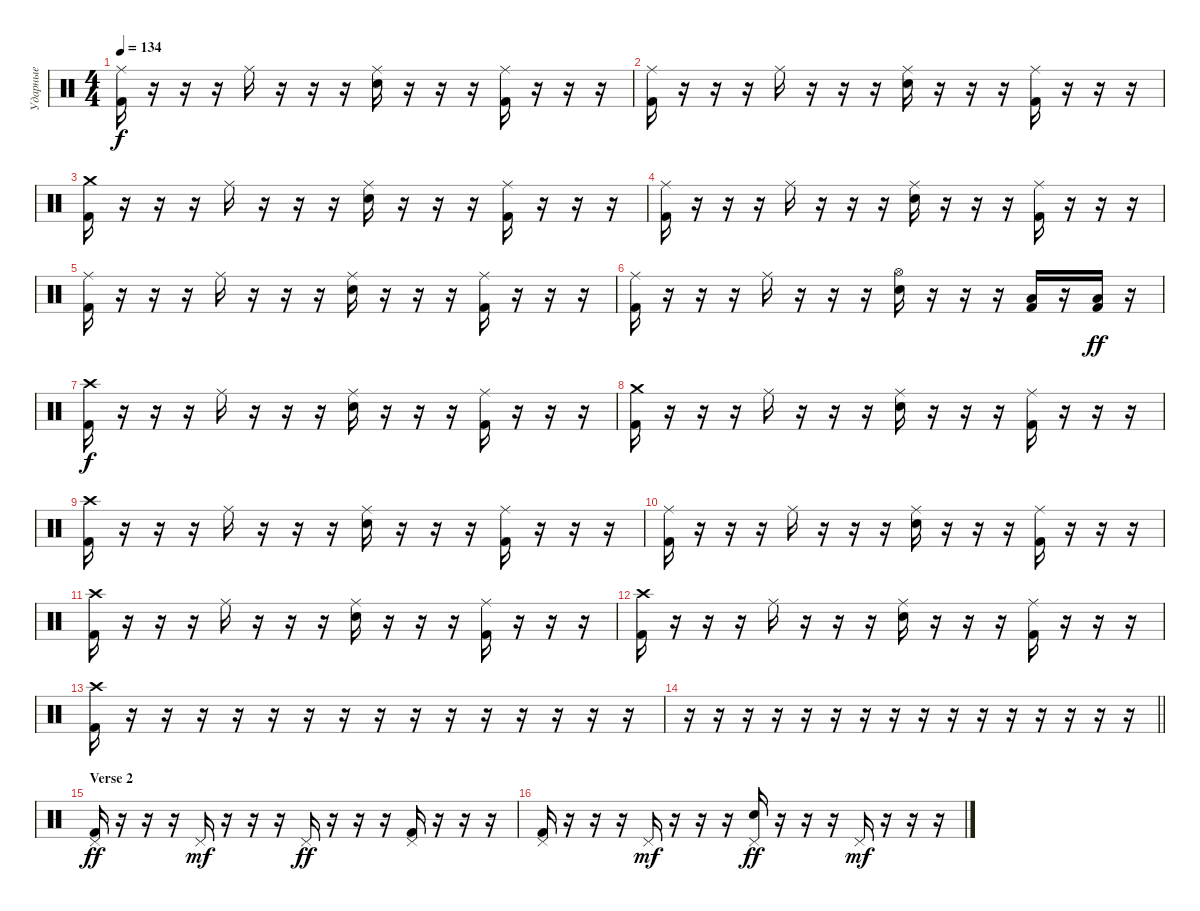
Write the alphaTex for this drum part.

\track ("Ударные" "Ударные") {instrument percussion}
\staff {score}
\articulation defaults
\ts (4 4)
\tempo 134
\clef neutral
\ks c
("Ride (middle)" "Kick (hit) 2").16{dy f} r.16 r.16 r.16 "Ride (middle)".16 r.16 r.16 r.16 ("Ride (middle)" "Snare (hit) 2").16 r.16 r.16 r.16 ("Ride (middle)" "Kick (hit) 2").16 r.16 r.16 r.16 |
("Ride (middle)" "Kick (hit) 2").16 r.16 r.16 r.16 "Ride (middle)".16 r.16 r.16 r.16 ("Ride (middle)" "Snare (hit) 2").16 r.16 r.16 r.16 ("Ride (middle)" "Kick (hit) 2").16 r.16 r.16 r.16 |
("Crash medium (hit)" "Kick (hit) 2").16 r.16 r.16 r.16 "Ride (middle)".16 r.16 r.16 r.16 ("Ride (middle)" "Snare (hit) 2").16 r.16 r.16 r.16 ("Ride (middle)" "Kick (hit) 2").16 r.16 r.16 r.16 |
("Ride (middle)" "Kick (hit) 2").16 r.16 r.16 r.16 "Ride (middle)".16 r.16 r.16 r.16 ("Ride (middle)" "Snare (hit) 2").16 r.16 r.16 r.16 ("Ride (middle)" "Kick (hit) 2").16 r.16 r.16 r.16 |
("Ride (middle)" "Kick (hit) 2").16 r.16 r.16 r.16 "Ride (middle)".16 r.16 r.16 r.16 ("Ride (middle)" "Snare (hit) 2").16 r.16 r.16 r.16 ("Ride (middle)" "Kick (hit) 2").16 r.16 r.16 r.16 |
("Ride (middle)" "Kick (hit) 2").16 r.16 r.16 r.16 "Ride (middle)".16 r.16 r.16 r.16 ("Hi-Hat (open)" "Snare (hit) 2").16 r.16 r.16 r.16 ("Low Tom (hit)" "Kick (hit) 2").16 r.16 ("Low Tom (hit)" "Kick (hit) 2").16{dy ff} r.16 |
("Crash high (hit)" "Kick (hit) 2").16{dy f} r.16 r.16 r.16 "Ride (middle)".16 r.16 r.16 r.16 ("Ride (middle)" "Snare (hit) 2").16 r.16 r.16 r.16 ("Ride (middle)" "Kick (hit) 2").16 r.16 r.16 r.16 |
("Crash medium (hit)" "Kick (hit) 2").16 r.16 r.16 r.16 "Ride (middle)".16 r.16 r.16 r.16 ("Ride (middle)" "Snare (hit) 2").16 r.16 r.16 r.16 ("Ride (middle)" "Kick (hit) 2").16 r.16 r.16 r.16 |
("Crash high (hit)" "Kick (hit) 2").16 r.16 r.16 r.16 "Ride (middle)".16 r.16 r.16 r.16 ("Ride (middle)" "Snare (hit) 2").16 r.16 r.16 r.16 ("Ride (middle)" "Kick (hit) 2").16 r.16 r.16 r.16 |
("Ride (middle)" "Kick (hit) 2").16 r.16 r.16 r.16 "Ride (middle)".16 r.16 r.16 r.16 ("Ride (middle)" "Snare (hit) 2").16 r.16 r.16 r.16 ("Ride (middle)" "Kick (hit) 2").16 r.16 r.16 r.16 |
("Crash high (hit)" "Kick (hit) 2").16 r.16 r.16 r.16 "Ride (middle)".16 r.16 r.16 r.16 ("Ride (middle)" "Snare (hit) 2").16 r.16 r.16 r.16 ("Ride (middle)" "Kick (hit) 2").16 r.16 r.16 r.16 |
("Crash high (hit)" "Kick (hit) 2").16 r.16 r.16 r.16 "Ride (middle)".16 r.16 r.16 r.16 ("Ride (middle)" "Snare (hit) 2").16 r.16 r.16 r.16 ("Ride (middle)" "Kick (hit) 2").16 r.16 r.16 r.16 |
("Crash high (hit)" "Kick (hit) 2").16 r.16 r.16 r.16 r.16 r.16 r.16 r.16 r.16 r.16 r.16 r.16 r.16 r.16 r.16 r.16 |
\barLineRight lightlight
r.16 r.16 r.16 r.16 r.16 r.16 r.16 r.16 r.16 r.16 r.16 r.16 r.16 r.16 r.16 r.16 |
\section ("" "Verse 2")
("Pedal Hi-Hat (hit)" "Kick (hit) 2").16{dy ff} r.16 r.16 r.16 "Pedal Hi-Hat (hit)".16{dy mf} r.16 r.16 r.16 "Pedal Hi-Hat (hit)".16{dy ff} r.16 r.16 r.16 ("Pedal Hi-Hat (hit)" "Kick (hit) 2").16 r.16 r.16 r.16 |
("Pedal Hi-Hat (hit)" "Kick (hit) 2").16 r.16 r.16 r.16 "Pedal Hi-Hat (hit)".16{dy mf} r.16 r.16 r.16 ("Pedal Hi-Hat (hit)" "Snare (hit) 2").16{dy ff} r.16 r.16 r.16 "Pedal Hi-Hat (hit)".16{dy mf} r.16 r.16 r.16
